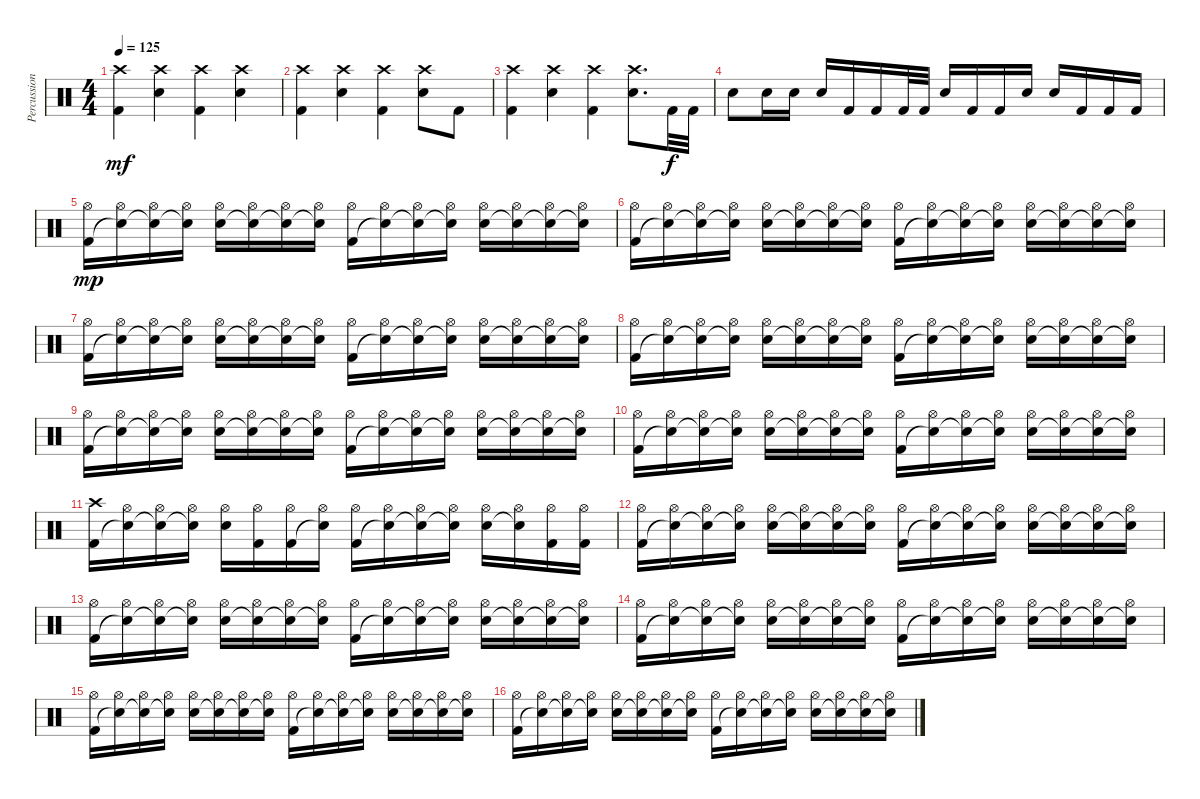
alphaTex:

\track ("Percussion" "Percussion") {instrument percussion}
\staff {score}
\articulation defaults
\ts (4 4)
\tempo 125
\clef neutral
\ks c
("Kick (hit) 2" "Crash high (hit)").4{dy mf} ("Electric Snare (hit)" "Crash high (hit)").4 ("Kick (hit) 2" "Crash high (hit)").4 ("Electric Snare (hit)" "Crash high (hit)").4 |
("Kick (hit) 2" "Crash high (hit)").4 ("Electric Snare (hit)" "Crash high (hit)").4 ("Kick (hit) 2" "Crash high (hit)").4 ("Electric Snare (hit)" "Crash high (hit)").8 "Kick (hit) 2".8 |
("Kick (hit) 2" "Crash high (hit)").4 ("Electric Snare (hit)" "Crash high (hit)").4 ("Kick (hit) 2" "Crash high (hit)").4 ("Electric Snare (hit)" "Crash high (hit)").8{d} "Kick (hit) 2".32{dy f} "Kick (hit) 2".32 |
"Electric Snare (hit)".8 "Electric Snare (hit)".16 "Electric Snare (hit)".16 "Electric Snare (hit)".16 "Kick (hit) 2".16 "Kick (hit) 2".16 "Kick (hit) 2".32 "Kick (hit) 2".32 "Electric Snare (hit)".16 "Kick (hit) 2".16 "Kick (hit) 2".16 "Electric Snare (hit)".16 "Electric Snare (hit)".16 "Kick (hit) 2".16 "Kick (hit) 2".16 "Kick (hit) 2".16 |
("Kick (hit) 2" "Hi-Hat (open)").16{dy mp} ("Snare (hit)"{t} "Hi-Hat (open)").16 ("Snare (hit)"{t} "Hi-Hat (open)").16 ("Snare (hit)"{t} "Hi-Hat (open)").16 ("Electric Snare (hit)" "Hi-Hat (open)").16 ("Snare (hit)"{t} "Hi-Hat (open)").16 ("Snare (hit)"{t} "Hi-Hat (open)").16 ("Snare (hit)"{t} "Hi-Hat (open)").16 ("Kick (hit) 2" "Hi-Hat (open)").16 ("Snare (hit)"{t} "Hi-Hat (open)").16 ("Snare (hit)"{t} "Hi-Hat (open)").16 ("Snare (hit)"{t} "Hi-Hat (open)").16 ("Electric Snare (hit)" "Hi-Hat (open)").16 ("Snare (hit)"{t} "Hi-Hat (open)").16 ("Snare (hit)"{t} "Hi-Hat (open)").16 ("Snare (hit)"{t} "Hi-Hat (open)").16 |
("Kick (hit) 2" "Hi-Hat (open)").16 ("Snare (hit)"{t} "Hi-Hat (open)").16 ("Snare (hit)"{t} "Hi-Hat (open)").16 ("Snare (hit)"{t} "Hi-Hat (open)").16 ("Electric Snare (hit)" "Hi-Hat (open)").16 ("Snare (hit)"{t} "Hi-Hat (open)").16 ("Snare (hit)"{t} "Hi-Hat (open)").16 ("Snare (hit)"{t} "Hi-Hat (open)").16 ("Kick (hit) 2" "Hi-Hat (open)").16 ("Snare (hit)"{t} "Hi-Hat (open)").16 ("Snare (hit)"{t} "Hi-Hat (open)").16 ("Snare (hit)"{t} "Hi-Hat (open)").16 ("Electric Snare (hit)" "Hi-Hat (open)").16 ("Snare (hit)"{t} "Hi-Hat (open)").16 ("Snare (hit)"{t} "Hi-Hat (open)").16 ("Snare (hit)"{t} "Hi-Hat (open)").16 |
("Kick (hit) 2" "Hi-Hat (open)").16 ("Snare (hit)"{t} "Hi-Hat (open)").16 ("Snare (hit)"{t} "Hi-Hat (open)").16 ("Snare (hit)"{t} "Hi-Hat (open)").16 ("Electric Snare (hit)" "Hi-Hat (open)").16 ("Snare (hit)"{t} "Hi-Hat (open)").16 ("Snare (hit)"{t} "Hi-Hat (open)").16 ("Snare (hit)"{t} "Hi-Hat (open)").16 ("Kick (hit) 2" "Hi-Hat (open)").16 ("Snare (hit)"{t} "Hi-Hat (open)").16 ("Snare (hit)"{t} "Hi-Hat (open)").16 ("Snare (hit)"{t} "Hi-Hat (open)").16 ("Electric Snare (hit)" "Hi-Hat (open)").16 ("Snare (hit)"{t} "Hi-Hat (open)").16 ("Snare (hit)"{t} "Hi-Hat (open)").16 ("Snare (hit)"{t} "Hi-Hat (open)").16 |
("Kick (hit) 2" "Hi-Hat (open)").16 ("Snare (hit)"{t} "Hi-Hat (open)").16 ("Snare (hit)"{t} "Hi-Hat (open)").16 ("Snare (hit)"{t} "Hi-Hat (open)").16 ("Electric Snare (hit)" "Hi-Hat (open)").16 ("Snare (hit)"{t} "Hi-Hat (open)").16 ("Snare (hit)"{t} "Hi-Hat (open)").16 ("Snare (hit)"{t} "Hi-Hat (open)").16 ("Kick (hit) 2" "Hi-Hat (open)").16 ("Snare (hit)"{t} "Hi-Hat (open)").16 ("Snare (hit)"{t} "Hi-Hat (open)").16 ("Snare (hit)"{t} "Hi-Hat (open)").16 ("Electric Snare (hit)" "Hi-Hat (open)").16 ("Snare (hit)"{t} "Hi-Hat (open)").16 ("Snare (hit)"{t} "Hi-Hat (open)").16 ("Snare (hit)"{t} "Hi-Hat (open)").16 |
("Kick (hit) 2" "Hi-Hat (open)").16 ("Snare (hit)"{t} "Hi-Hat (open)").16 ("Snare (hit)"{t} "Hi-Hat (open)").16 ("Snare (hit)"{t} "Hi-Hat (open)").16 ("Electric Snare (hit)" "Hi-Hat (open)").16 ("Snare (hit)"{t} "Hi-Hat (open)").16 ("Snare (hit)"{t} "Hi-Hat (open)").16 ("Snare (hit)"{t} "Hi-Hat (open)").16 ("Kick (hit) 2" "Hi-Hat (open)").16 ("Snare (hit)"{t} "Hi-Hat (open)").16 ("Snare (hit)"{t} "Hi-Hat (open)").16 ("Snare (hit)"{t} "Hi-Hat (open)").16 ("Electric Snare (hit)" "Hi-Hat (open)").16 ("Snare (hit)"{t} "Hi-Hat (open)").16 ("Snare (hit)"{t} "Hi-Hat (open)").16 ("Snare (hit)"{t} "Hi-Hat (open)").16 |
("Kick (hit) 2" "Hi-Hat (open)").16 ("Snare (hit)"{t} "Hi-Hat (open)").16 ("Snare (hit)"{t} "Hi-Hat (open)").16 ("Snare (hit)"{t} "Hi-Hat (open)").16 ("Electric Snare (hit)" "Hi-Hat (open)").16 ("Snare (hit)"{t} "Hi-Hat (open)").16 ("Snare (hit)"{t} "Hi-Hat (open)").16 ("Snare (hit)"{t} "Hi-Hat (open)").16 ("Kick (hit) 2" "Hi-Hat (open)").16 ("Snare (hit)"{t} "Hi-Hat (open)").16 ("Snare (hit)"{t} "Hi-Hat (open)").16 ("Snare (hit)"{t} "Hi-Hat (open)").16 ("Electric Snare (hit)" "Hi-Hat (open)").16 ("Snare (hit)"{t} "Hi-Hat (open)").16 ("Snare (hit)"{t} "Hi-Hat (open)").16 ("Snare (hit)"{t} "Hi-Hat (open)").16 |
("Kick (hit) 2" "Crash high (hit)").16 ("Snare (hit)"{t} "Hi-Hat (open)").16 ("Snare (hit)"{t} "Hi-Hat (open)").16 ("Snare (hit)"{t} "Hi-Hat (open)").16 ("Electric Snare (hit)" "Hi-Hat (open)").16 ("Kick (hit) 2" "Hi-Hat (open)").16 ("Kick (hit) 2" "Hi-Hat (open)").16 ("Snare (hit)"{t} "Hi-Hat (open)").16 ("Kick (hit) 2" "Hi-Hat (open)").16 ("Snare (hit)"{t} "Hi-Hat (open)").16 ("Snare (hit)"{t} "Hi-Hat (open)").16 ("Snare (hit)"{t} "Hi-Hat (open)").16 ("Electric Snare (hit)" "Hi-Hat (open)").16 ("Snare (hit)"{t} "Hi-Hat (open)").16 ("Kick (hit) 2" "Hi-Hat (open)").16 ("Kick (hit) 2" "Hi-Hat (open)").16 |
("Kick (hit) 2" "Hi-Hat (open)").16 ("Snare (hit)"{t} "Hi-Hat (open)").16 ("Snare (hit)"{t} "Hi-Hat (open)").16 ("Snare (hit)"{t} "Hi-Hat (open)").16 ("Electric Snare (hit)" "Hi-Hat (open)").16 ("Snare (hit)"{t} "Hi-Hat (open)").16 ("Snare (hit)"{t} "Hi-Hat (open)").16 ("Snare (hit)"{t} "Hi-Hat (open)").16 ("Kick (hit) 2" "Hi-Hat (open)").16 ("Snare (hit)"{t} "Hi-Hat (open)").16 ("Snare (hit)"{t} "Hi-Hat (open)").16 ("Snare (hit)"{t} "Hi-Hat (open)").16 ("Electric Snare (hit)" "Hi-Hat (open)").16 ("Snare (hit)"{t} "Hi-Hat (open)").16 ("Snare (hit)"{t} "Hi-Hat (open)").16 ("Snare (hit)"{t} "Hi-Hat (open)").16 |
("Kick (hit) 2" "Hi-Hat (open)").16 ("Snare (hit)"{t} "Hi-Hat (open)").16 ("Snare (hit)"{t} "Hi-Hat (open)").16 ("Snare (hit)"{t} "Hi-Hat (open)").16 ("Electric Snare (hit)" "Hi-Hat (open)").16 ("Snare (hit)"{t} "Hi-Hat (open)").16 ("Snare (hit)"{t} "Hi-Hat (open)").16 ("Snare (hit)"{t} "Hi-Hat (open)").16 ("Kick (hit) 2" "Hi-Hat (open)").16 ("Snare (hit)"{t} "Hi-Hat (open)").16 ("Snare (hit)"{t} "Hi-Hat (open)").16 ("Snare (hit)"{t} "Hi-Hat (open)").16 ("Electric Snare (hit)" "Hi-Hat (open)").16 ("Snare (hit)"{t} "Hi-Hat (open)").16 ("Snare (hit)"{t} "Hi-Hat (open)").16 ("Snare (hit)"{t} "Hi-Hat (open)").16 |
("Kick (hit) 2" "Hi-Hat (open)").16 ("Snare (hit)"{t} "Hi-Hat (open)").16 ("Snare (hit)"{t} "Hi-Hat (open)").16 ("Snare (hit)"{t} "Hi-Hat (open)").16 ("Electric Snare (hit)" "Hi-Hat (open)").16 ("Snare (hit)"{t} "Hi-Hat (open)").16 ("Snare (hit)"{t} "Hi-Hat (open)").16 ("Snare (hit)"{t} "Hi-Hat (open)").16 ("Kick (hit) 2" "Hi-Hat (open)").16 ("Snare (hit)"{t} "Hi-Hat (open)").16 ("Snare (hit)"{t} "Hi-Hat (open)").16 ("Snare (hit)"{t} "Hi-Hat (open)").16 ("Electric Snare (hit)" "Hi-Hat (open)").16 ("Snare (hit)"{t} "Hi-Hat (open)").16 ("Snare (hit)"{t} "Hi-Hat (open)").16 ("Snare (hit)"{t} "Hi-Hat (open)").16 |
("Kick (hit) 2" "Hi-Hat (open)").16 ("Snare (hit)"{t} "Hi-Hat (open)").16 ("Snare (hit)"{t} "Hi-Hat (open)").16 ("Snare (hit)"{t} "Hi-Hat (open)").16 ("Electric Snare (hit)" "Hi-Hat (open)").16 ("Snare (hit)"{t} "Hi-Hat (open)").16 ("Snare (hit)"{t} "Hi-Hat (open)").16 ("Snare (hit)"{t} "Hi-Hat (open)").16 ("Kick (hit) 2" "Hi-Hat (open)").16 ("Snare (hit)"{t} "Hi-Hat (open)").16 ("Snare (hit)"{t} "Hi-Hat (open)").16 ("Snare (hit)"{t} "Hi-Hat (open)").16 ("Electric Snare (hit)" "Hi-Hat (open)").16 ("Snare (hit)"{t} "Hi-Hat (open)").16 ("Snare (hit)"{t} "Hi-Hat (open)").16 ("Snare (hit)"{t} "Hi-Hat (open)").16 |
("Kick (hit) 2" "Hi-Hat (open)").16 ("Snare (hit)"{t} "Hi-Hat (open)").16 ("Snare (hit)"{t} "Hi-Hat (open)").16 ("Snare (hit)"{t} "Hi-Hat (open)").16 ("Electric Snare (hit)" "Hi-Hat (open)").16 ("Snare (hit)"{t} "Hi-Hat (open)").16 ("Snare (hit)"{t} "Hi-Hat (open)").16 ("Snare (hit)"{t} "Hi-Hat (open)").16 ("Kick (hit) 2" "Hi-Hat (open)").16 ("Snare (hit)"{t} "Hi-Hat (open)").16 ("Snare (hit)"{t} "Hi-Hat (open)").16 ("Snare (hit)"{t} "Hi-Hat (open)").16 ("Electric Snare (hit)" "Hi-Hat (open)").16 ("Snare (hit)"{t} "Hi-Hat (open)").16 ("Snare (hit)"{t} "Hi-Hat (open)").16 ("Snare (hit)"{t} "Hi-Hat (open)").16
